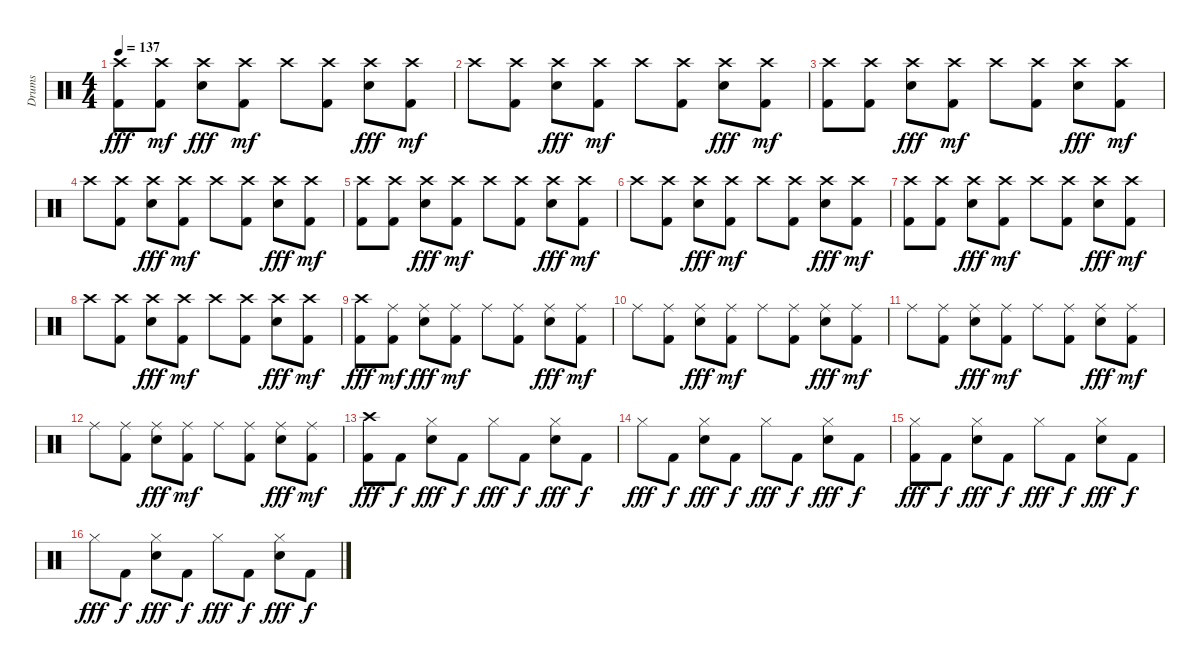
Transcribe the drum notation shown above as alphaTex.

\track ("Drums" "Drums") {instrument percussion}
\staff {score}
\articulation defaults
\ts (4 4)
\tempo 137
\clef neutral
\ks c
("Crash high (hit)" "Kick (hit) 2").8{dy fff volume 13} ("Crash high (hit)" "Kick (hit) 2").8{dy mf} ("Crash high (hit)" "Snare (hit) 2").8{dy fff} ("Crash high (hit)" "Kick (hit) 2").8{dy mf} "Crash high (hit)".8 ("Crash high (hit)" "Kick (hit) 2").8 ("Crash high (hit)" "Snare (hit) 2").8{dy fff} ("Crash high (hit)" "Kick (hit) 2").8{dy mf} |
"Crash high (hit)".8 ("Crash high (hit)" "Kick (hit) 2").8 ("Crash high (hit)" "Snare (hit) 2").8{dy fff} ("Crash high (hit)" "Kick (hit) 2").8{dy mf} "Crash high (hit)".8 ("Crash high (hit)" "Kick (hit) 2").8 ("Crash high (hit)" "Snare (hit) 2").8{dy fff} ("Crash high (hit)" "Kick (hit) 2").8{dy mf} |
("Crash high (hit)" "Kick (hit) 2").8 ("Crash high (hit)" "Kick (hit) 2").8 ("Crash high (hit)" "Snare (hit) 2").8{dy fff} ("Crash high (hit)" "Kick (hit) 2").8{dy mf} "Crash high (hit)".8 ("Crash high (hit)" "Kick (hit) 2").8 ("Crash high (hit)" "Snare (hit) 2").8{dy fff} ("Crash high (hit)" "Kick (hit) 2").8{dy mf} |
"Crash high (hit)".8 ("Crash high (hit)" "Kick (hit) 2").8 ("Crash high (hit)" "Snare (hit) 2").8{dy fff} ("Crash high (hit)" "Kick (hit) 2").8{dy mf} "Crash high (hit)".8 ("Crash high (hit)" "Kick (hit) 2").8 ("Crash high (hit)" "Snare (hit) 2").8{dy fff} ("Crash high (hit)" "Kick (hit) 2").8{dy mf} |
("Crash high (hit)" "Kick (hit) 2").8 ("Crash high (hit)" "Kick (hit) 2").8 ("Crash high (hit)" "Snare (hit) 2").8{dy fff} ("Crash high (hit)" "Kick (hit) 2").8{dy mf} "Crash high (hit)".8 ("Crash high (hit)" "Kick (hit) 2").8 ("Crash high (hit)" "Snare (hit) 2").8{dy fff} ("Crash high (hit)" "Kick (hit) 2").8{dy mf} |
"Crash high (hit)".8 ("Crash high (hit)" "Kick (hit) 2").8 ("Crash high (hit)" "Snare (hit) 2").8{dy fff} ("Crash high (hit)" "Kick (hit) 2").8{dy mf} "Crash high (hit)".8 ("Crash high (hit)" "Kick (hit) 2").8 ("Crash high (hit)" "Snare (hit) 2").8{dy fff} ("Crash high (hit)" "Kick (hit) 2").8{dy mf} |
("Crash high (hit)" "Kick (hit) 2").8 ("Crash high (hit)" "Kick (hit) 2").8 ("Crash high (hit)" "Snare (hit) 2").8{dy fff} ("Crash high (hit)" "Kick (hit) 2").8{dy mf} "Crash high (hit)".8 ("Crash high (hit)" "Kick (hit) 2").8 ("Crash high (hit)" "Snare (hit) 2").8{dy fff} ("Crash high (hit)" "Kick (hit) 2").8{dy mf} |
"Crash high (hit)".8 ("Crash high (hit)" "Kick (hit) 2").8 ("Crash high (hit)" "Snare (hit) 2").8{dy fff} ("Crash high (hit)" "Kick (hit) 2").8{dy mf} "Crash high (hit)".8 ("Crash high (hit)" "Kick (hit) 2").8 ("Crash high (hit)" "Snare (hit) 2").8{dy fff} ("Crash high (hit)" "Kick (hit) 2").8{dy mf} |
("Crash high (hit)" "Kick (hit) 2").8{dy fff volume 13} ("Ride (middle)" "Kick (hit) 2").8{dy mf} ("Ride (middle)" "Snare (hit) 2").8{dy fff} ("Ride (middle)" "Kick (hit) 2").8{dy mf} "Ride (middle)".8 ("Ride (middle)" "Kick (hit) 2").8 ("Ride (middle)" "Snare (hit) 2").8{dy fff} ("Ride (middle)" "Kick (hit) 2").8{dy mf} |
"Ride (middle)".8 ("Ride (middle)" "Kick (hit) 2").8 ("Ride (middle)" "Snare (hit) 2").8{dy fff} ("Ride (middle)" "Kick (hit) 2").8{dy mf} "Ride (middle)".8 ("Ride (middle)" "Kick (hit) 2").8 ("Ride (middle)" "Snare (hit) 2").8{dy fff} ("Ride (middle)" "Kick (hit) 2").8{dy mf} |
"Ride (middle)".8 ("Ride (middle)" "Kick (hit) 2").8 ("Ride (middle)" "Snare (hit) 2").8{dy fff} ("Ride (middle)" "Kick (hit) 2").8{dy mf} "Ride (middle)".8 ("Ride (middle)" "Kick (hit) 2").8 ("Ride (middle)" "Snare (hit) 2").8{dy fff} ("Ride (middle)" "Kick (hit) 2").8{dy mf} |
"Ride (middle)".8 ("Ride (middle)" "Kick (hit) 2").8 ("Ride (middle)" "Snare (hit) 2").8{dy fff} ("Ride (middle)" "Kick (hit) 2").8{dy mf} "Ride (middle)".8 ("Ride (middle)" "Kick (hit) 2").8 ("Ride (middle)" "Snare (hit) 2").8{dy fff} ("Ride (middle)" "Kick (hit) 2").8{dy mf} |
("Crash high (hit)" "Kick (hit) 2").8{dy fff volume 11} "Kick (hit) 2".8{dy f} ("Hi-Hat (closed)" "Snare (hit) 2").8{dy fff} "Kick (hit) 2".8{dy f} "Hi-Hat (closed)".8{dy fff} "Kick (hit) 2".8{dy f} ("Hi-Hat (closed)" "Snare (hit) 2").8{dy fff} "Kick (hit) 2".8{dy f} |
"Hi-Hat (closed)".8{dy fff} "Kick (hit) 2".8{dy f} ("Hi-Hat (closed)" "Snare (hit) 2").8{dy fff} "Kick (hit) 2".8{dy f} "Hi-Hat (closed)".8{dy fff} "Kick (hit) 2".8{dy f} ("Hi-Hat (closed)" "Snare (hit) 2").8{dy fff} "Kick (hit) 2".8{dy f} |
("Hi-Hat (closed)" "Kick (hit) 2").8{dy fff volume 11} "Kick (hit) 2".8{dy f} ("Hi-Hat (closed)" "Snare (hit) 2").8{dy fff} "Kick (hit) 2".8{dy f} "Hi-Hat (closed)".8{dy fff} "Kick (hit) 2".8{dy f} ("Hi-Hat (closed)" "Snare (hit) 2").8{dy fff} "Kick (hit) 2".8{dy f} |
"Hi-Hat (closed)".8{dy fff} "Kick (hit) 2".8{dy f} ("Hi-Hat (closed)" "Snare (hit) 2").8{dy fff} "Kick (hit) 2".8{dy f} "Hi-Hat (closed)".8{dy fff} "Kick (hit) 2".8{dy f} ("Hi-Hat (closed)" "Snare (hit) 2").8{dy fff} "Kick (hit) 2".8{dy f}
